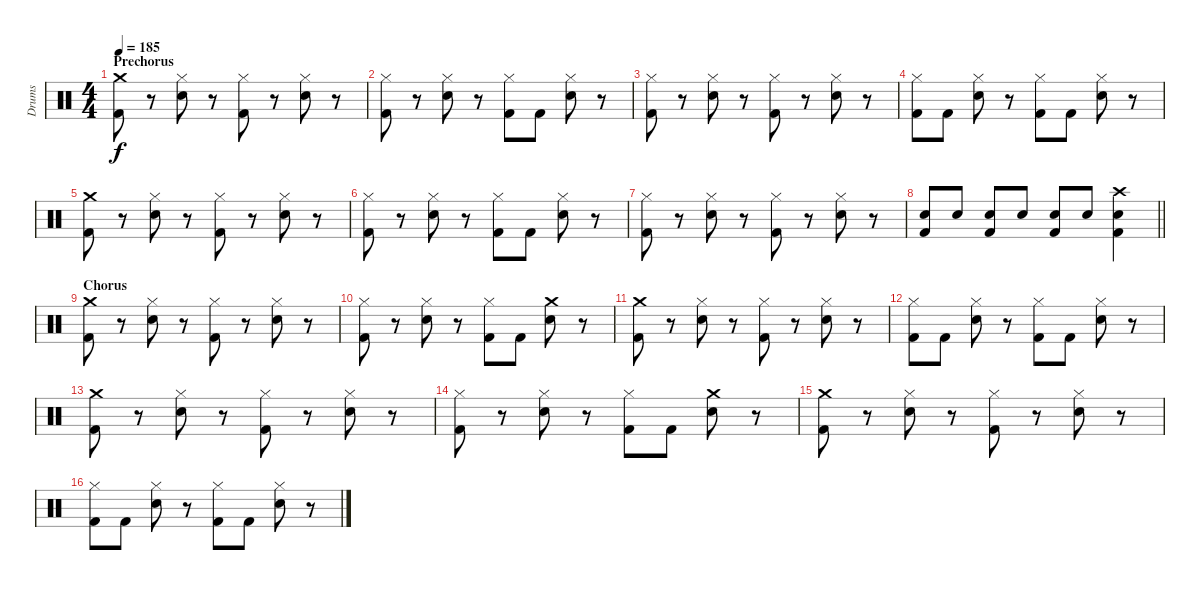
\track ("Drums" "Drums") {instrument percussion}
\staff {score}
\articulation defaults
\ts (4 4)
\section ("" "Prechorus")
\tempo 185
\clef neutral
\ks c
("Crash medium (hit)" "Kick (hit) 2").8{dy f} r.8 ("Hi-Hat (closed)" "Electric Snare (hit)").8 r.8 ("Hi-Hat (closed)" "Kick (hit) 2").8 r.8 ("Hi-Hat (closed)" "Electric Snare (hit)").8 r.8 |
("Hi-Hat (closed)" "Kick (hit) 2").8 r.8 ("Hi-Hat (closed)" "Electric Snare (hit)").8 r.8 ("Hi-Hat (closed)" "Kick (hit) 2").8 "Kick (hit) 2".8 ("Hi-Hat (closed)" "Electric Snare (hit)").8 r.8 |
("Hi-Hat (closed)" "Kick (hit) 2").8 r.8 ("Hi-Hat (closed)" "Electric Snare (hit)").8 r.8 ("Hi-Hat (closed)" "Kick (hit) 2").8 r.8 ("Hi-Hat (closed)" "Electric Snare (hit)").8 r.8 |
("Hi-Hat (closed)" "Kick (hit) 2").8 "Kick (hit) 2".8 ("Hi-Hat (closed)" "Electric Snare (hit)").8 r.8 ("Hi-Hat (closed)" "Kick (hit) 2").8 "Kick (hit) 2".8 ("Hi-Hat (closed)" "Electric Snare (hit)").8 r.8 |
("Crash medium (hit)" "Kick (hit) 2").8 r.8 ("Hi-Hat (closed)" "Electric Snare (hit)").8 r.8 ("Hi-Hat (closed)" "Kick (hit) 2").8 r.8 ("Hi-Hat (closed)" "Electric Snare (hit)").8 r.8 |
("Hi-Hat (closed)" "Kick (hit) 2").8 r.8 ("Hi-Hat (closed)" "Electric Snare (hit)").8 r.8 ("Hi-Hat (closed)" "Kick (hit) 2").8 "Kick (hit) 2".8 ("Hi-Hat (closed)" "Electric Snare (hit)").8 r.8 |
("Hi-Hat (closed)" "Kick (hit) 2").8 r.8 ("Hi-Hat (closed)" "Electric Snare (hit)").8 r.8 ("Hi-Hat (closed)" "Kick (hit) 2").8 r.8 ("Hi-Hat (closed)" "Electric Snare (hit)").8 r.8 |
\barLineRight lightlight
("Electric Snare (hit)" "Kick (hit) 2").8 "Electric Snare (hit)".8 ("Electric Snare (hit)" "Kick (hit) 2").8 "Electric Snare (hit)".8 ("Electric Snare (hit)" "Kick (hit) 2").8 "Electric Snare (hit)".8 ("Crash high (hit)" "Electric Snare (hit)" "Kick (hit) 2").4 |
\section ("" "Chorus")
("Crash medium (hit)" "Kick (hit) 2").8 r.8 ("Hi-Hat (closed)" "Electric Snare (hit)").8 r.8 ("Hi-Hat (closed)" "Kick (hit) 2").8 r.8 ("Hi-Hat (closed)" "Electric Snare (hit)").8 r.8 |
("Hi-Hat (closed)" "Kick (hit) 2").8 r.8 ("Hi-Hat (closed)" "Electric Snare (hit)").8 r.8 ("Hi-Hat (closed)" "Kick (hit) 2").8 "Kick (hit) 2".8 ("Crash medium (hit)" "Electric Snare (hit)").8 r.8 |
("Crash medium (hit)" "Kick (hit) 2").8 r.8 ("Hi-Hat (closed)" "Electric Snare (hit)").8 r.8 ("Hi-Hat (closed)" "Kick (hit) 2").8 r.8 ("Hi-Hat (closed)" "Electric Snare (hit)").8 r.8 |
("Hi-Hat (closed)" "Kick (hit) 2").8 "Kick (hit) 2".8 ("Hi-Hat (closed)" "Electric Snare (hit)").8 r.8 ("Hi-Hat (closed)" "Kick (hit) 2").8 "Kick (hit) 2".8 ("Hi-Hat (closed)" "Electric Snare (hit)").8 r.8 |
("Crash medium (hit)" "Kick (hit) 2").8 r.8 ("Hi-Hat (closed)" "Electric Snare (hit)").8 r.8 ("Hi-Hat (closed)" "Kick (hit) 2").8 r.8 ("Hi-Hat (closed)" "Electric Snare (hit)").8 r.8 |
("Hi-Hat (closed)" "Kick (hit) 2").8 r.8 ("Hi-Hat (closed)" "Electric Snare (hit)").8 r.8 ("Hi-Hat (closed)" "Kick (hit) 2").8 "Kick (hit) 2".8 ("Crash medium (hit)" "Electric Snare (hit)").8 r.8 |
("Crash medium (hit)" "Kick (hit) 2").8 r.8 ("Hi-Hat (closed)" "Electric Snare (hit)").8 r.8 ("Hi-Hat (closed)" "Kick (hit) 2").8 r.8 ("Hi-Hat (closed)" "Electric Snare (hit)").8 r.8 |
("Hi-Hat (closed)" "Kick (hit) 2").8 "Kick (hit) 2".8 ("Hi-Hat (closed)" "Electric Snare (hit)").8 r.8 ("Hi-Hat (closed)" "Kick (hit) 2").8 "Kick (hit) 2".8 ("Hi-Hat (closed)" "Electric Snare (hit)").8 r.8
